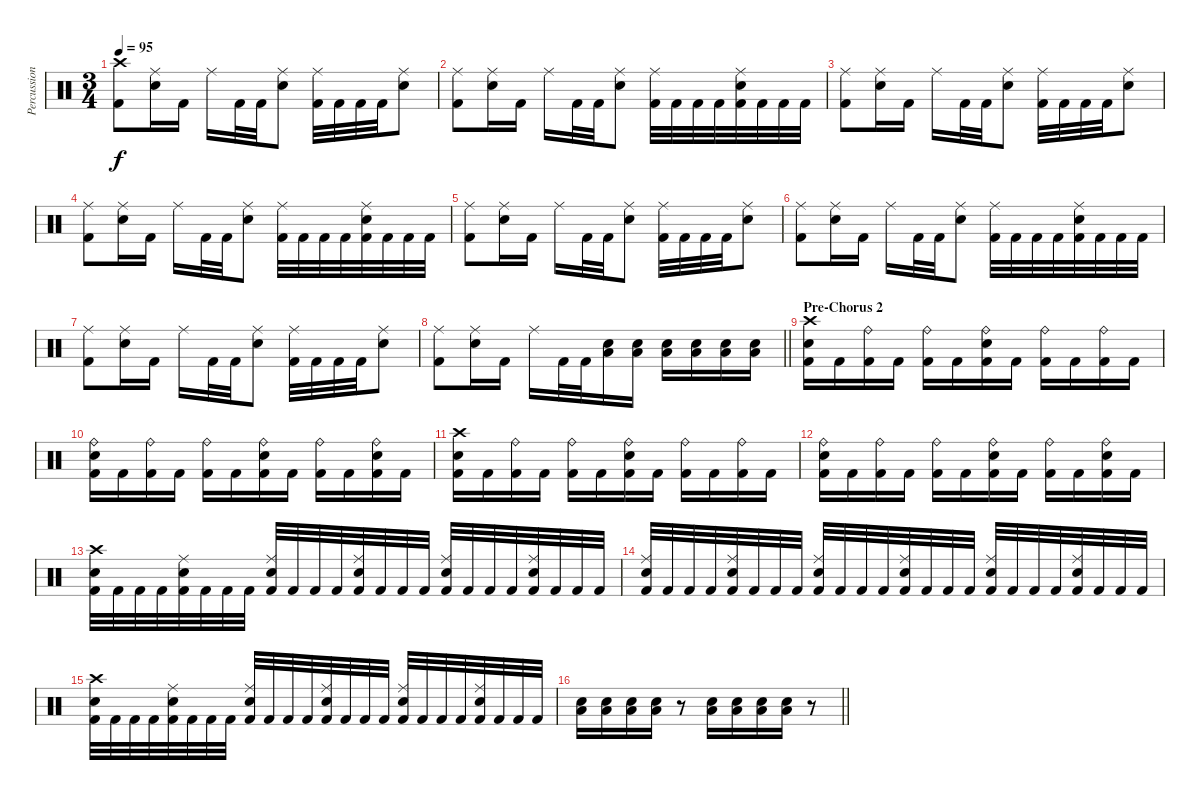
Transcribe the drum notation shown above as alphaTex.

\track ("Percussion Mike" "Percussion") {instrument percussion}
\staff {score}
\articulation defaults
\ts (3 4)
\tempo 95
\clef neutral
\ks c
("Crash high (hit)" "Kick (hit) 2").8{dy f} ("Ride (middle)" "Snare (hit) 2").16 "Kick (hit) 2".16 "Ride (middle)".16 "Kick (hit) 2".32 "Kick (hit) 2".32 ("Ride (middle)" "Snare (hit) 2").8 ("Ride (middle)" "Kick (hit) 2").32 "Kick (hit) 2".32 "Kick (hit) 2".32 "Kick (hit) 2".32 ("Ride (middle)" "Snare (hit) 2").8 |
("Ride (middle)" "Kick (hit) 2").8 ("Ride (middle)" "Snare (hit) 2").16 "Kick (hit) 2".16 "Ride (middle)".16 "Kick (hit) 2".32 "Kick (hit) 2".32 ("Ride (middle)" "Snare (hit) 2").8 ("Ride (middle)" "Kick (hit) 2").32 "Kick (hit) 2".32 "Kick (hit) 2".32 "Kick (hit) 2".32 ("Ride (middle)" "Snare (hit) 2" "Kick (hit) 2").32 "Kick (hit) 2".32 "Kick (hit) 2".32 "Kick (hit) 2".32 |
("Ride (middle)" "Kick (hit) 2").8 ("Ride (middle)" "Snare (hit) 2").16 "Kick (hit) 2".16 "Ride (middle)".16 "Kick (hit) 2".32 "Kick (hit) 2".32 ("Ride (middle)" "Snare (hit) 2").8 ("Ride (middle)" "Kick (hit) 2").32 "Kick (hit) 2".32 "Kick (hit) 2".32 "Kick (hit) 2".32 ("Ride (middle)" "Snare (hit) 2").8 |
("Ride (middle)" "Kick (hit) 2").8 ("Ride (middle)" "Snare (hit) 2").16 "Kick (hit) 2".16 "Ride (middle)".16 "Kick (hit) 2".32 "Kick (hit) 2".32 ("Ride (middle)" "Snare (hit) 2").8 ("Ride (middle)" "Kick (hit) 2").32 "Kick (hit) 2".32 "Kick (hit) 2".32 "Kick (hit) 2".32 ("Ride (middle)" "Snare (hit) 2" "Kick (hit) 2").32 "Kick (hit) 2".32 "Kick (hit) 2".32 "Kick (hit) 2".32 |
("Ride (middle)" "Kick (hit) 2").8 ("Ride (middle)" "Snare (hit) 2").16 "Kick (hit) 2".16 "Ride (middle)".16 "Kick (hit) 2".32 "Kick (hit) 2".32 ("Ride (middle)" "Snare (hit) 2").8 ("Ride (middle)" "Kick (hit) 2").32 "Kick (hit) 2".32 "Kick (hit) 2".32 "Kick (hit) 2".32 ("Ride (middle)" "Snare (hit) 2").8 |
("Ride (middle)" "Kick (hit) 2").8 ("Ride (middle)" "Snare (hit) 2").16 "Kick (hit) 2".16 "Ride (middle)".16 "Kick (hit) 2".32 "Kick (hit) 2".32 ("Ride (middle)" "Snare (hit) 2").8 ("Ride (middle)" "Kick (hit) 2").32 "Kick (hit) 2".32 "Kick (hit) 2".32 "Kick (hit) 2".32 ("Ride (middle)" "Snare (hit) 2" "Kick (hit) 2").32 "Kick (hit) 2".32 "Kick (hit) 2".32 "Kick (hit) 2".32 |
("Ride (middle)" "Kick (hit) 2").8 ("Ride (middle)" "Snare (hit) 2").16 "Kick (hit) 2".16 "Ride (middle)".16 "Kick (hit) 2".32 "Kick (hit) 2".32 ("Ride (middle)" "Snare (hit) 2").8 ("Ride (middle)" "Kick (hit) 2").32 "Kick (hit) 2".32 "Kick (hit) 2".32 "Kick (hit) 2".32 ("Ride (middle)" "Snare (hit) 2").8 |
\barLineRight lightlight
("Ride (middle)" "Kick (hit) 2").8 ("Ride (middle)" "Snare (hit) 2").16 "Kick (hit) 2".16 "Ride (middle)".16 "Kick (hit) 2".32 "Kick (hit) 2".32 ("Snare (hit) 2" "Low Floor Tom (hit)").16 ("Snare (hit) 2" "Low Floor Tom (hit)").16 ("Snare (hit) 2" "Low Floor Tom (hit)").16 ("Snare (hit) 2" "Low Floor Tom (hit)").16 ("Snare (hit) 2" "Low Floor Tom (hit)").16 ("Snare (hit) 2" "Low Floor Tom (hit)").16 |
\section ("" "Pre-Chorus 2")
("Crash high (hit)" "Snare (hit) 2" "Kick (hit) 2").16 "Kick (hit) 2".16 ("Ride (bell)" "Kick (hit) 2").16 "Kick (hit) 2".16 ("Ride (bell)" "Kick (hit) 2").16 "Kick (hit) 2".16 ("Ride (bell)" "Snare (hit) 2" "Kick (hit) 2").16 "Kick (hit) 2".16 ("Ride (bell)" "Kick (hit) 2").16 "Kick (hit) 2".16 ("Ride (bell)" "Kick (hit) 2").16 "Kick (hit) 2".16 |
("Ride (bell)" "Snare (hit) 2" "Kick (hit) 2").16 "Kick (hit) 2".16 ("Ride (bell)" "Kick (hit) 2").16 "Kick (hit) 2".16 ("Ride (bell)" "Kick (hit) 2").16 "Kick (hit) 2".16 ("Ride (bell)" "Snare (hit) 2" "Kick (hit) 2").16 "Kick (hit) 2".16 ("Ride (bell)" "Kick (hit) 2").16 "Kick (hit) 2".16 ("Ride (bell)" "Snare (hit) 2" "Kick (hit) 2").16 "Kick (hit) 2".16 |
("Crash high (hit)" "Snare (hit) 2" "Kick (hit) 2").16 "Kick (hit) 2".16 ("Ride (bell)" "Kick (hit) 2").16 "Kick (hit) 2".16 ("Ride (bell)" "Kick (hit) 2").16 "Kick (hit) 2".16 ("Ride (bell)" "Snare (hit) 2" "Kick (hit) 2").16 "Kick (hit) 2".16 ("Ride (bell)" "Kick (hit) 2").16 "Kick (hit) 2".16 ("Ride (bell)" "Kick (hit) 2").16 "Kick (hit) 2".16 |
("Ride (bell)" "Snare (hit) 2" "Kick (hit) 2").16 "Kick (hit) 2".16 ("Ride (bell)" "Kick (hit) 2").16 "Kick (hit) 2".16 ("Ride (bell)" "Kick (hit) 2").16 "Kick (hit) 2".16 ("Ride (bell)" "Snare (hit) 2" "Kick (hit) 2").16 "Kick (hit) 2".16 ("Ride (bell)" "Kick (hit) 2").16 "Kick (hit) 2".16 ("Ride (bell)" "Snare (hit) 2" "Kick (hit) 2").16 "Kick (hit) 2".16 |
("Crash high (hit)" "Snare (hit) 2" "Kick (hit) 2").32 "Kick (hit) 2".32 "Kick (hit) 2".32 "Kick (hit) 2".32 ("Ride (middle)" "Snare (hit) 2" "Kick (hit) 2").32 "Kick (hit) 2".32 "Kick (hit) 2".32 "Kick (hit) 2".32 ("Ride (middle)" "Snare (hit) 2" "Kick (hit) 2").32 "Kick (hit) 2".32 "Kick (hit) 2".32 "Kick (hit) 2".32 ("Ride (middle)" "Snare (hit) 2" "Kick (hit) 2").32 "Kick (hit) 2".32 "Kick (hit) 2".32 "Kick (hit) 2".32 ("Ride (middle)" "Snare (hit) 2" "Kick (hit) 2").32 "Kick (hit) 2".32 "Kick (hit) 2".32 "Kick (hit) 2".32 ("Ride (middle)" "Snare (hit) 2" "Kick (hit) 2").32 "Kick (hit) 2".32 "Kick (hit) 2".32 "Kick (hit) 2".32 |
("Ride (middle)" "Snare (hit) 2" "Kick (hit) 2").32 "Kick (hit) 2".32 "Kick (hit) 2".32 "Kick (hit) 2".32 ("Ride (middle)" "Snare (hit) 2" "Kick (hit) 2").32 "Kick (hit) 2".32 "Kick (hit) 2".32 "Kick (hit) 2".32 ("Ride (middle)" "Snare (hit) 2" "Kick (hit) 2").32 "Kick (hit) 2".32 "Kick (hit) 2".32 "Kick (hit) 2".32 ("Ride (middle)" "Snare (hit) 2" "Kick (hit) 2").32 "Kick (hit) 2".32 "Kick (hit) 2".32 "Kick (hit) 2".32 ("Ride (middle)" "Snare (hit) 2" "Kick (hit) 2").32 "Kick (hit) 2".32 "Kick (hit) 2".32 "Kick (hit) 2".32 ("Ride (middle)" "Snare (hit) 2" "Kick (hit) 2").32 "Kick (hit) 2".32 "Kick (hit) 2".32 "Kick (hit) 2".32 |
("Crash high (hit)" "Snare (hit) 2" "Kick (hit) 2").32 "Kick (hit) 2".32 "Kick (hit) 2".32 "Kick (hit) 2".32 ("Ride (middle)" "Snare (hit) 2" "Kick (hit) 2").32 "Kick (hit) 2".32 "Kick (hit) 2".32 "Kick (hit) 2".32 ("Ride (middle)" "Snare (hit) 2" "Kick (hit) 2").32 "Kick (hit) 2".32 "Kick (hit) 2".32 "Kick (hit) 2".32 ("Ride (middle)" "Snare (hit) 2" "Kick (hit) 2").32 "Kick (hit) 2".32 "Kick (hit) 2".32 "Kick (hit) 2".32 ("Ride (middle)" "Snare (hit) 2" "Kick (hit) 2").32 "Kick (hit) 2".32 "Kick (hit) 2".32 "Kick (hit) 2".32 ("Ride (middle)" "Snare (hit) 2" "Kick (hit) 2").32 "Kick (hit) 2".32 "Kick (hit) 2".32 "Kick (hit) 2".32 |
\barLineRight lightlight
("Snare (hit) 2" "Low Floor Tom (hit)").16 ("Snare (hit) 2" "Low Floor Tom (hit)").16 ("Snare (hit) 2" "Low Floor Tom (hit)").16 ("Snare (hit) 2" "Low Floor Tom (hit)").16 r.8 ("Snare (hit) 2" "Low Floor Tom (hit)").16 ("Snare (hit) 2" "Low Floor Tom (hit)").16{beam merge} ("Snare (hit) 2" "Low Floor Tom (hit)").16 ("Snare (hit) 2" "Low Floor Tom (hit)").16 r.8
